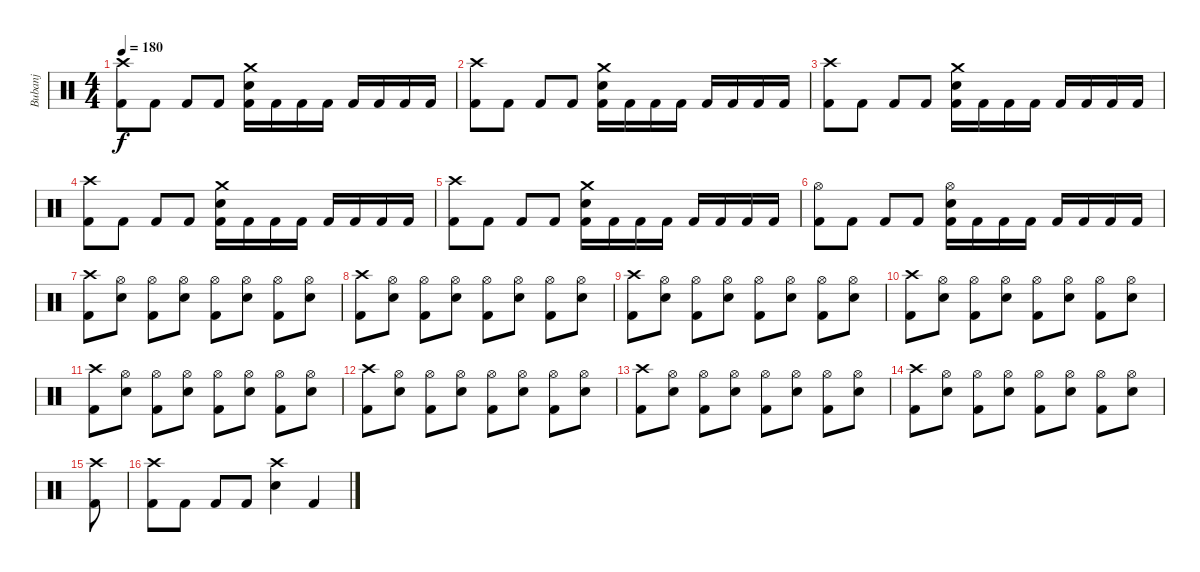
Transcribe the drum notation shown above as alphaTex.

\track ("Bubanj" "Bubanj") {instrument percussion}
\staff
\articulation defaults
\ts (4 4)
\tempo 180
\clef neutral
\ks c
("Crash high (hit)" "Kick (hit) 2").8{dy f} "Kick (hit) 2".8 "Kick (hit) 2".8 "Kick (hit) 2".8 ("Electric Snare (hit)" "Crash medium (hit)" "Kick (hit) 2").16 "Kick (hit) 2".16 "Kick (hit) 2".16 "Kick (hit) 2".16 "Kick (hit) 2".16 "Kick (hit) 2".16 "Kick (hit) 2".16 "Kick (hit) 2".16 |
("Crash high (hit)" "Kick (hit) 2").8 "Kick (hit) 2".8 "Kick (hit) 2".8 "Kick (hit) 2".8 ("Electric Snare (hit)" "Crash medium (hit)" "Kick (hit) 2").16 "Kick (hit) 2".16 "Kick (hit) 2".16 "Kick (hit) 2".16 "Kick (hit) 2".16 "Kick (hit) 2".16 "Kick (hit) 2".16 "Kick (hit) 2".16 |
("Crash high (hit)" "Kick (hit) 2").8 "Kick (hit) 2".8 "Kick (hit) 2".8 "Kick (hit) 2".8 ("Electric Snare (hit)" "Crash medium (hit)" "Kick (hit) 2").16 "Kick (hit) 2".16 "Kick (hit) 2".16 "Kick (hit) 2".16 "Kick (hit) 2".16 "Kick (hit) 2".16 "Kick (hit) 2".16 "Kick (hit) 2".16 |
("Crash high (hit)" "Kick (hit) 2").8 "Kick (hit) 2".8 "Kick (hit) 2".8 "Kick (hit) 2".8 ("Electric Snare (hit)" "Crash medium (hit)" "Kick (hit) 2").16 "Kick (hit) 2".16 "Kick (hit) 2".16 "Kick (hit) 2".16 "Kick (hit) 2".16 "Kick (hit) 2".16 "Kick (hit) 2".16 "Kick (hit) 2".16 |
("Crash high (hit)" "Kick (hit) 2").8 "Kick (hit) 2".8 "Kick (hit) 2".8 "Kick (hit) 2".8 ("Electric Snare (hit)" "Crash medium (hit)" "Kick (hit) 2").16 "Kick (hit) 2".16 "Kick (hit) 2".16 "Kick (hit) 2".16 "Kick (hit) 2".16 "Kick (hit) 2".16 "Kick (hit) 2".16 "Kick (hit) 2".16 |
("Hi-Hat (open)" "Kick (hit) 2").8 "Kick (hit) 2".8 "Kick (hit) 2".8 "Kick (hit) 2".8 ("Electric Snare (hit)" "Hi-Hat (open)" "Kick (hit) 2").16 "Kick (hit) 2".16 "Kick (hit) 2".16 "Kick (hit) 2".16 "Kick (hit) 2".16 "Kick (hit) 2".16 "Kick (hit) 2".16 "Kick (hit) 2".16 |
("Crash high (hit)" "Kick (hit) 2").8 ("Hi-Hat (open)" "Electric Snare (hit)").8 ("Hi-Hat (open)" "Kick (hit) 2").8 ("Hi-Hat (open)" "Electric Snare (hit)").8 ("Hi-Hat (open)" "Kick (hit) 2").8 ("Hi-Hat (open)" "Electric Snare (hit)").8 ("Hi-Hat (open)" "Kick (hit) 2").8 ("Hi-Hat (open)" "Electric Snare (hit)").8 |
("Crash high (hit)" "Kick (hit) 2").8 ("Hi-Hat (open)" "Electric Snare (hit)").8 ("Hi-Hat (open)" "Kick (hit) 2").8 ("Hi-Hat (open)" "Electric Snare (hit)").8 ("Hi-Hat (open)" "Kick (hit) 2").8 ("Hi-Hat (open)" "Electric Snare (hit)").8 ("Hi-Hat (open)" "Kick (hit) 2").8 ("Hi-Hat (open)" "Electric Snare (hit)").8 |
("Crash high (hit)" "Kick (hit) 2").8 ("Hi-Hat (open)" "Electric Snare (hit)").8 ("Hi-Hat (open)" "Kick (hit) 2").8 ("Hi-Hat (open)" "Electric Snare (hit)").8 ("Hi-Hat (open)" "Kick (hit) 2").8 ("Hi-Hat (open)" "Electric Snare (hit)").8 ("Hi-Hat (open)" "Kick (hit) 2").8 ("Hi-Hat (open)" "Electric Snare (hit)").8 |
("Crash high (hit)" "Kick (hit) 2").8 ("Hi-Hat (open)" "Electric Snare (hit)").8 ("Hi-Hat (open)" "Kick (hit) 2").8 ("Hi-Hat (open)" "Electric Snare (hit)").8 ("Hi-Hat (open)" "Kick (hit) 2").8 ("Hi-Hat (open)" "Electric Snare (hit)").8 ("Hi-Hat (open)" "Kick (hit) 2").8 ("Hi-Hat (open)" "Electric Snare (hit)").8 |
("Crash high (hit)" "Kick (hit) 2").8 ("Hi-Hat (open)" "Electric Snare (hit)").8 ("Hi-Hat (open)" "Kick (hit) 2").8 ("Hi-Hat (open)" "Electric Snare (hit)").8 ("Hi-Hat (open)" "Kick (hit) 2").8 ("Hi-Hat (open)" "Electric Snare (hit)").8 ("Hi-Hat (open)" "Kick (hit) 2").8 ("Hi-Hat (open)" "Electric Snare (hit)").8 |
("Crash high (hit)" "Kick (hit) 2").8 ("Hi-Hat (open)" "Electric Snare (hit)").8 ("Hi-Hat (open)" "Kick (hit) 2").8 ("Hi-Hat (open)" "Electric Snare (hit)").8 ("Hi-Hat (open)" "Kick (hit) 2").8 ("Hi-Hat (open)" "Electric Snare (hit)").8 ("Hi-Hat (open)" "Kick (hit) 2").8 ("Hi-Hat (open)" "Electric Snare (hit)").8 |
("Crash high (hit)" "Kick (hit) 2").8 ("Hi-Hat (open)" "Electric Snare (hit)").8 ("Hi-Hat (open)" "Kick (hit) 2").8 ("Hi-Hat (open)" "Electric Snare (hit)").8 ("Hi-Hat (open)" "Kick (hit) 2").8 ("Hi-Hat (open)" "Electric Snare (hit)").8 ("Hi-Hat (open)" "Kick (hit) 2").8 ("Hi-Hat (open)" "Electric Snare (hit)").8 |
("Crash high (hit)" "Kick (hit) 2").8 ("Hi-Hat (open)" "Electric Snare (hit)").8 ("Hi-Hat (open)" "Kick (hit) 2").8 ("Hi-Hat (open)" "Electric Snare (hit)").8 ("Hi-Hat (open)" "Kick (hit) 2").8 ("Hi-Hat (open)" "Electric Snare (hit)").8 ("Hi-Hat (open)" "Kick (hit) 2").8 ("Hi-Hat (open)" "Electric Snare (hit)").8 |
("Crash high (hit)" "Kick (hit) 2").8 |
("Crash high (hit)" "Kick (hit) 2").8 "Kick (hit) 2".8 "Kick (hit) 2".8 "Kick (hit) 2".8 ("Crash high (hit)" "Snare (hit) 2").4 "Kick (hit) 2".4
